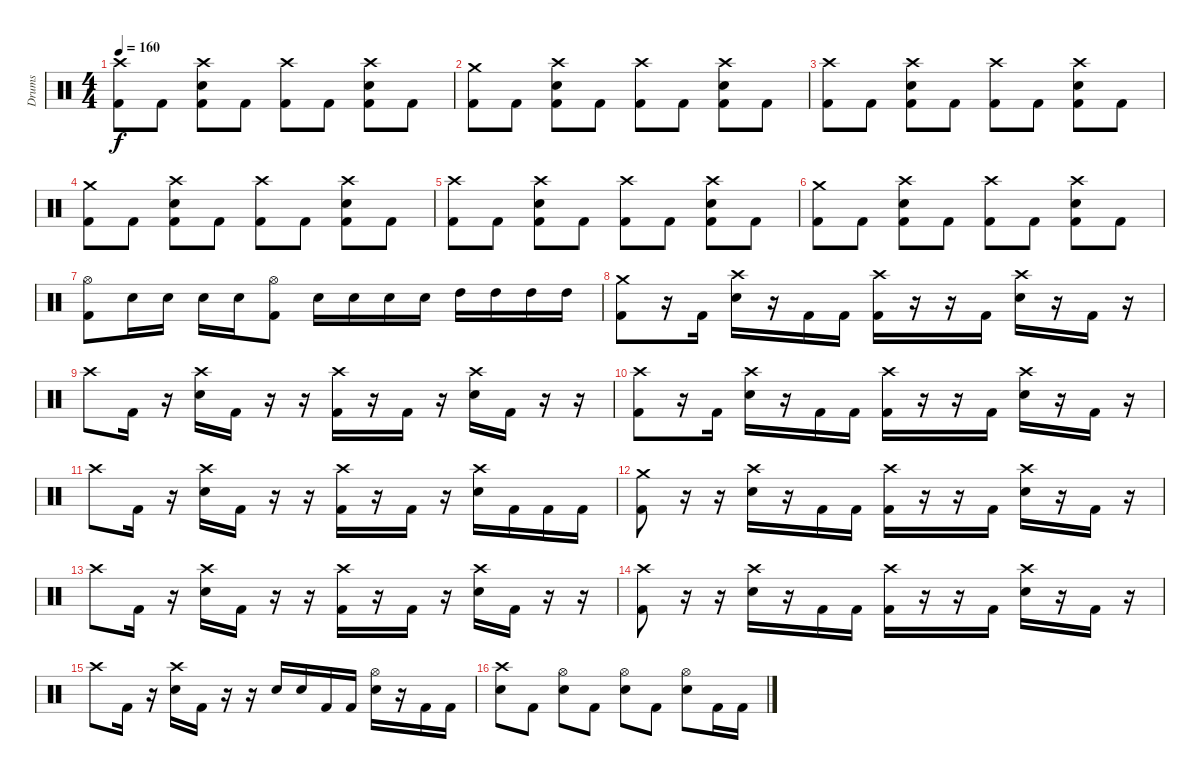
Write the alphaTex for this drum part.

\track ("Drums" "Drums") {instrument percussion}
\staff {score}
\articulation defaults
\ts (4 4)
\tempo 160
\clef neutral
\ks c
("Crash high (hit)" "Kick (hit) 2").8{dy f} "Kick (hit) 2".8 ("Crash high (hit)" "Electric Snare (hit)" "Kick (hit) 2").8 "Kick (hit) 2".8 ("Crash high (hit)" "Kick (hit) 2").8 "Kick (hit) 2".8 ("Crash high (hit)" "Electric Snare (hit)" "Kick (hit) 2").8 "Kick (hit) 2".8 |
("Crash medium (hit)" "Kick (hit) 2").8 "Kick (hit) 2".8 ("Crash high (hit)" "Electric Snare (hit)" "Kick (hit) 2").8 "Kick (hit) 2".8 ("Crash high (hit)" "Kick (hit) 2").8 "Kick (hit) 2".8 ("Crash high (hit)" "Electric Snare (hit)" "Kick (hit) 2").8 "Kick (hit) 2".8 |
("Crash high (hit)" "Kick (hit) 2").8 "Kick (hit) 2".8 ("Crash high (hit)" "Electric Snare (hit)" "Kick (hit) 2").8 "Kick (hit) 2".8 ("Crash high (hit)" "Kick (hit) 2").8 "Kick (hit) 2".8 ("Crash high (hit)" "Electric Snare (hit)" "Kick (hit) 2").8 "Kick (hit) 2".8 |
("Crash medium (hit)" "Kick (hit) 2").8 "Kick (hit) 2".8 ("Crash high (hit)" "Electric Snare (hit)" "Kick (hit) 2").8 "Kick (hit) 2".8 ("Crash high (hit)" "Kick (hit) 2").8 "Kick (hit) 2".8 ("Crash high (hit)" "Electric Snare (hit)" "Kick (hit) 2").8 "Kick (hit) 2".8 |
("Crash high (hit)" "Kick (hit) 2").8 "Kick (hit) 2".8 ("Crash high (hit)" "Electric Snare (hit)" "Kick (hit) 2").8 "Kick (hit) 2".8 ("Crash high (hit)" "Kick (hit) 2").8 "Kick (hit) 2".8 ("Crash high (hit)" "Electric Snare (hit)" "Kick (hit) 2").8 "Kick (hit) 2".8 |
("Crash medium (hit)" "Kick (hit) 2").8 "Kick (hit) 2".8 ("Crash high (hit)" "Electric Snare (hit)" "Kick (hit) 2").8 "Kick (hit) 2".8 ("Crash high (hit)" "Kick (hit) 2").8 "Kick (hit) 2".8 ("Crash high (hit)" "Electric Snare (hit)" "Kick (hit) 2").8 "Kick (hit) 2".8 |
("Hi-Hat (open)" "Kick (hit) 2").8 "Electric Snare (hit)".16 "Electric Snare (hit)".16 "Electric Snare (hit)".16 "Electric Snare (hit)".16 ("Hi-Hat (open)" "Kick (hit) 2").8 "Electric Snare (hit)".16 "Electric Snare (hit)".16 "Electric Snare (hit)".16 "Electric Snare (hit)".16 "High Tom (hit)".16 "High Tom (hit)".16 "High Tom (hit)".16 "High Tom (hit)".16 |
("Crash medium (hit)" "Kick (hit) 2").8 r.16 "Kick (hit) 2".16 ("Crash high (hit)" "Electric Snare (hit)").16 r.16 "Kick (hit) 2".16 "Kick (hit) 2".16 ("Crash high (hit)" "Kick (hit) 2").16 r.16 r.16 "Kick (hit) 2".16 ("Crash high (hit)" "Electric Snare (hit)").16 r.16 "Kick (hit) 2".16 r.16 |
"Crash high (hit)".8 "Kick (hit) 2".16 r.16 ("Crash high (hit)" "Electric Snare (hit)").16 "Kick (hit) 2".16 r.16 r.16 ("Crash high (hit)" "Kick (hit) 2").16 r.16 "Kick (hit) 2".16 r.16 ("Crash high (hit)" "Electric Snare (hit)").16 "Kick (hit) 2".16 r.16 r.16 |
("Crash high (hit)" "Kick (hit) 2").8 r.16 "Kick (hit) 2".16 ("Crash high (hit)" "Electric Snare (hit)").16 r.16 "Kick (hit) 2".16 "Kick (hit) 2".16 ("Crash high (hit)" "Kick (hit) 2").16 r.16 r.16 "Kick (hit) 2".16 ("Crash high (hit)" "Electric Snare (hit)").16 r.16 "Kick (hit) 2".16 r.16 |
"Crash high (hit)".8 "Kick (hit) 2".16 r.16 ("Crash high (hit)" "Electric Snare (hit)").16 "Kick (hit) 2".16 r.16 r.16 ("Crash high (hit)" "Kick (hit) 2").16 r.16 "Kick (hit) 2".16 r.16 ("Crash high (hit)" "Electric Snare (hit)").16 "Kick (hit) 2".16 "Kick (hit) 2".16 "Kick (hit) 2".16 |
("Crash medium (hit)" "Kick (hit) 2").8 r.16 r.16 ("Crash high (hit)" "Electric Snare (hit)").16 r.16 "Kick (hit) 2".16 "Kick (hit) 2".16 ("Crash high (hit)" "Kick (hit) 2").16 r.16 r.16 "Kick (hit) 2".16 ("Crash high (hit)" "Electric Snare (hit)").16 r.16 "Kick (hit) 2".16 r.16 |
"Crash high (hit)".8 "Kick (hit) 2".16 r.16 ("Crash high (hit)" "Electric Snare (hit)").16 "Kick (hit) 2".16 r.16 r.16 ("Crash high (hit)" "Kick (hit) 2").16 r.16 "Kick (hit) 2".16 r.16 ("Crash high (hit)" "Electric Snare (hit)").16 "Kick (hit) 2".16 r.16 r.16 |
("Crash high (hit)" "Kick (hit) 2").8 r.16 r.16 ("Crash high (hit)" "Electric Snare (hit)").16 r.16 "Kick (hit) 2".16 "Kick (hit) 2".16 ("Crash high (hit)" "Kick (hit) 2").16 r.16 r.16 "Kick (hit) 2".16 ("Crash high (hit)" "Electric Snare (hit)").16 r.16 "Kick (hit) 2".16 r.16 |
"Crash high (hit)".8 "Kick (hit) 2".16 r.16 ("Crash high (hit)" "Electric Snare (hit)").16 "Kick (hit) 2".16 r.16 r.16 "Electric Snare (hit)".16 "Electric Snare (hit)".16 "Kick (hit) 2".16 "Kick (hit) 2".16 ("Hi-Hat (open)" "Electric Snare (hit)").16 r.16 "Kick (hit) 2".16 "Kick (hit) 2".16 |
("Crash high (hit)" "Electric Snare (hit)").8 "Kick (hit) 2".8 ("Hi-Hat (open)" "Electric Snare (hit)").8 "Kick (hit) 2".8 ("Hi-Hat (open)" "Electric Snare (hit)").8 "Kick (hit) 2".8 ("Hi-Hat (open)" "Electric Snare (hit)").8 "Kick (hit) 2".16 "Kick (hit) 2".16
